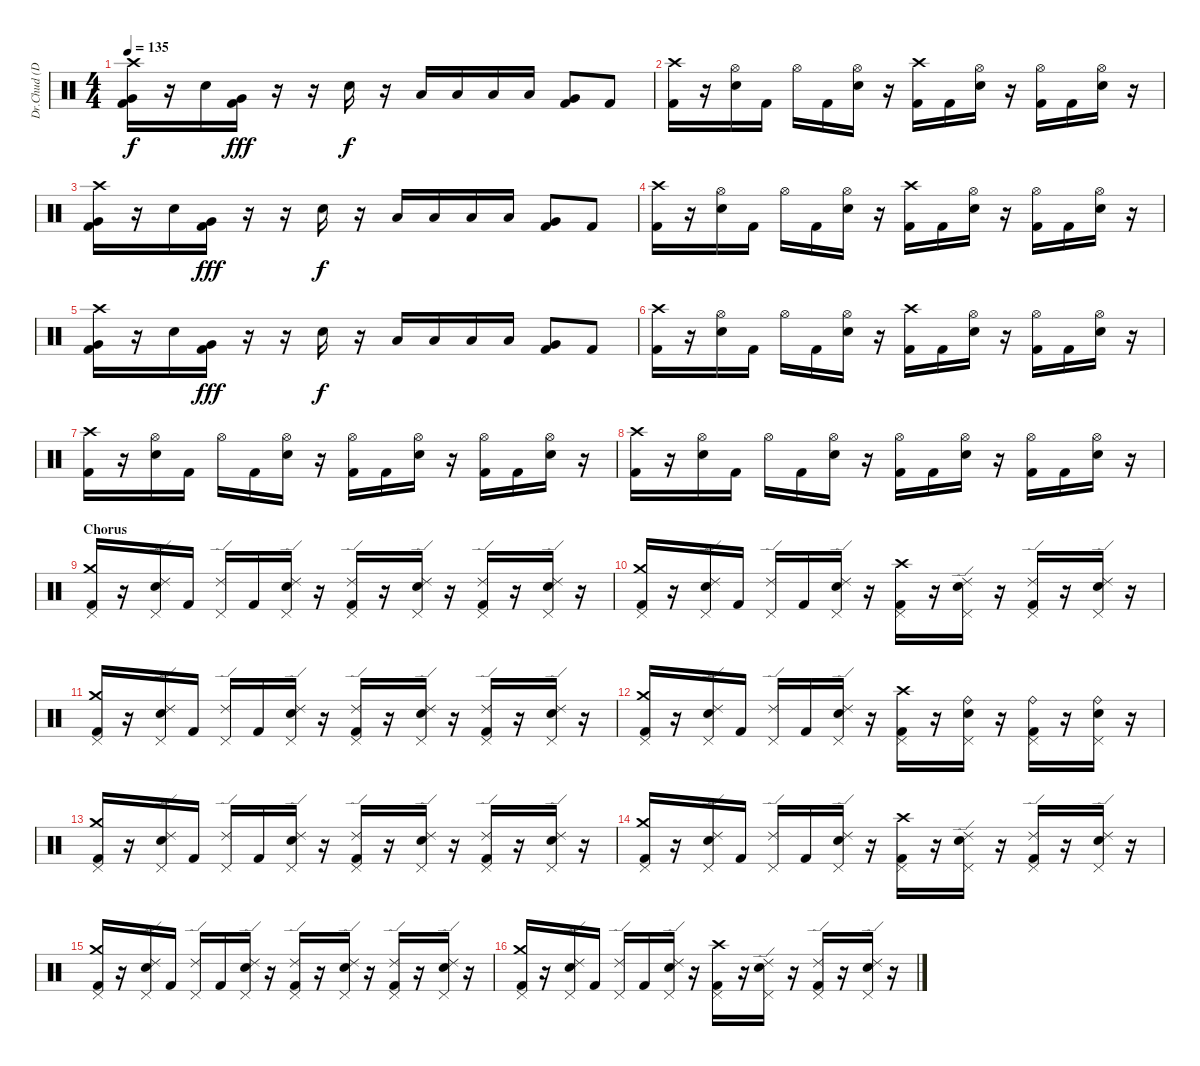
\track ("Dr.Chud (Drums)" "Dr.Chud (D") {instrument percussion}
\staff {score}
\articulation defaults
\ts (4 4)
\tempo 135
\clef neutral
\ks c
("Crash high (hit)" "Very Low Tom (hit)" "Kick (hit) 2").16{dy f} r.16 "Snare (hit) 2".16 ("Very Low Tom (hit)" "Kick (hit) 2").16{dy fff} r.16 r.16 "Snare (hit) 2".16{dy f} r.16 "Low Tom (hit)".16 "Low Tom (hit)".16 "Low Tom (hit)".16 "Low Tom (hit)".16 ("Very Low Tom (hit)" "Kick (hit) 2").8 "Kick (hit) 2".8 |
("Crash high (hit)" "Kick (hit) 2").16 r.16 ("Hi-Hat (open)" "Snare (hit) 2").16 "Kick (hit) 2".16 "Hi-Hat (open)".16 "Kick (hit) 2".16 ("Hi-Hat (open)" "Snare (hit) 2").16 r.16 ("Crash high (hit)" "Kick (hit) 2").16 "Kick (hit) 2".16 ("Hi-Hat (open)" "Snare (hit) 2").16 r.16 ("Hi-Hat (open)" "Kick (hit) 2").16 "Kick (hit) 2".16 ("Hi-Hat (open)" "Snare (hit) 2").16 r.16 |
("Crash high (hit)" "Very Low Tom (hit)" "Kick (hit) 2").16 r.16 "Snare (hit) 2".16 ("Very Low Tom (hit)" "Kick (hit) 2").16{dy fff} r.16 r.16 "Snare (hit) 2".16{dy f} r.16 "Low Tom (hit)".16 "Low Tom (hit)".16 "Low Tom (hit)".16 "Low Tom (hit)".16 ("Very Low Tom (hit)" "Kick (hit) 2").8 "Kick (hit) 2".8 |
("Crash high (hit)" "Kick (hit) 2").16 r.16 ("Hi-Hat (open)" "Snare (hit) 2").16 "Kick (hit) 2".16 "Hi-Hat (open)".16 "Kick (hit) 2".16 ("Hi-Hat (open)" "Snare (hit) 2").16 r.16 ("Crash high (hit)" "Kick (hit) 2").16 "Kick (hit) 2".16 ("Hi-Hat (open)" "Snare (hit) 2").16 r.16 ("Hi-Hat (open)" "Kick (hit) 2").16 "Kick (hit) 2".16 ("Hi-Hat (open)" "Snare (hit) 2").16 r.16 |
("Crash high (hit)" "Very Low Tom (hit)" "Kick (hit) 2").16 r.16 "Snare (hit) 2".16 ("Very Low Tom (hit)" "Kick (hit) 2").16{dy fff} r.16 r.16 "Snare (hit) 2".16{dy f} r.16 "Low Tom (hit)".16 "Low Tom (hit)".16 "Low Tom (hit)".16 "Low Tom (hit)".16 ("Very Low Tom (hit)" "Kick (hit) 2").8 "Kick (hit) 2".8 |
("Crash high (hit)" "Kick (hit) 2").16 r.16 ("Hi-Hat (open)" "Snare (hit) 2").16 "Kick (hit) 2".16 "Hi-Hat (open)".16 "Kick (hit) 2".16 ("Hi-Hat (open)" "Snare (hit) 2").16 r.16 ("Crash high (hit)" "Kick (hit) 2").16 "Kick (hit) 2".16 ("Hi-Hat (open)" "Snare (hit) 2").16 r.16 ("Hi-Hat (open)" "Kick (hit) 2").16 "Kick (hit) 2".16 ("Hi-Hat (open)" "Snare (hit) 2").16 r.16 |
("Crash high (hit)" "Kick (hit) 2").16 r.16 ("Hi-Hat (open)" "Snare (hit) 2").16 "Kick (hit) 2".16 "Hi-Hat (open)".16 "Kick (hit) 2".16 ("Hi-Hat (open)" "Snare (hit) 2").16 r.16 ("Hi-Hat (open)" "Kick (hit) 2").16 "Kick (hit) 2".16 ("Hi-Hat (open)" "Snare (hit) 2").16 r.16 ("Hi-Hat (open)" "Kick (hit) 2").16 "Kick (hit) 2".16 ("Hi-Hat (open)" "Snare (hit) 2").16 r.16 |
("Crash high (hit)" "Kick (hit) 2").16 r.16 ("Hi-Hat (open)" "Snare (hit) 2").16 "Kick (hit) 2".16 "Hi-Hat (open)".16 "Kick (hit) 2".16 ("Hi-Hat (open)" "Snare (hit) 2").16 r.16 ("Hi-Hat (open)" "Kick (hit) 2").16 "Kick (hit) 2".16 ("Hi-Hat (open)" "Snare (hit) 2").16 r.16 ("Hi-Hat (open)" "Kick (hit) 2").16 "Kick (hit) 2".16 ("Hi-Hat (open)" "Snare (hit) 2").16 r.16 |
\section ("" "Chorus")
("Crash medium (hit)" "Pedal Hi-Hat (hit)" "Kick (hit) 2").16 r.16 ("Ride (edge) 2" "Snare (hit) 2" "Pedal Hi-Hat (hit)").16 "Kick (hit) 2".16 ("Ride (edge) 2" "Pedal Hi-Hat (hit)").16 "Kick (hit) 2".16 ("Ride (edge) 2" "Snare (hit) 2" "Pedal Hi-Hat (hit)").16 r.16 ("Ride (edge) 2" "Pedal Hi-Hat (hit)" "Kick (hit) 2").16 r.16 ("Ride (edge) 2" "Snare (hit) 2" "Pedal Hi-Hat (hit)").16 r.16 ("Ride (edge) 2" "Pedal Hi-Hat (hit)" "Kick (hit) 2").16 r.16 ("Ride (edge) 2" "Snare (hit) 2" "Pedal Hi-Hat (hit)").16 r.16 |
("Crash medium (hit)" "Pedal Hi-Hat (hit)" "Kick (hit) 2").16 r.16 ("Ride (edge) 2" "Snare (hit) 2" "Pedal Hi-Hat (hit)").16 "Kick (hit) 2".16 ("Ride (edge) 2" "Pedal Hi-Hat (hit)").16 "Kick (hit) 2".16 ("Ride (edge) 2" "Snare (hit) 2" "Pedal Hi-Hat (hit)").16 r.16 ("Crash high (hit)" "Pedal Hi-Hat (hit)" "Kick (hit) 2").16 r.16 ("Ride (edge) 2" "Snare (hit) 2" "Pedal Hi-Hat (hit)").16 r.16 ("Ride (edge) 2" "Pedal Hi-Hat (hit)" "Kick (hit) 2").16 r.16 ("Ride (edge) 2" "Snare (hit) 2" "Pedal Hi-Hat (hit)").16 r.16 |
("Crash medium (hit)" "Pedal Hi-Hat (hit)" "Kick (hit) 2").16 r.16 ("Ride (edge) 2" "Snare (hit) 2" "Pedal Hi-Hat (hit)").16 "Kick (hit) 2".16 ("Ride (edge) 2" "Pedal Hi-Hat (hit)").16 "Kick (hit) 2".16 ("Ride (edge) 2" "Snare (hit) 2" "Pedal Hi-Hat (hit)").16 r.16 ("Ride (edge) 2" "Pedal Hi-Hat (hit)" "Kick (hit) 2").16 r.16 ("Ride (edge) 2" "Snare (hit) 2" "Pedal Hi-Hat (hit)").16 r.16 ("Ride (edge) 2" "Pedal Hi-Hat (hit)" "Kick (hit) 2").16 r.16 ("Ride (edge) 2" "Snare (hit) 2" "Pedal Hi-Hat (hit)").16 r.16 |
("Crash medium (hit)" "Pedal Hi-Hat (hit)" "Kick (hit) 2").16 r.16 ("Ride (edge) 2" "Snare (hit) 2" "Pedal Hi-Hat (hit)").16 "Kick (hit) 2".16 ("Ride (edge) 2" "Pedal Hi-Hat (hit)").16 "Kick (hit) 2".16 ("Ride (edge) 2" "Snare (hit) 2" "Pedal Hi-Hat (hit)").16 r.16 ("Crash high (hit)" "Pedal Hi-Hat (hit)" "Kick (hit) 2").16 r.16 ("Ride (bell)" "Snare (hit) 2" "Pedal Hi-Hat (hit)").16 r.16 ("Ride (bell)" "Pedal Hi-Hat (hit)" "Kick (hit) 2").16 r.16 ("Ride (bell)" "Snare (hit) 2" "Pedal Hi-Hat (hit)").16 r.16 |
("Crash medium (hit)" "Pedal Hi-Hat (hit)" "Kick (hit) 2").16 r.16 ("Ride (edge) 2" "Snare (hit) 2" "Pedal Hi-Hat (hit)").16 "Kick (hit) 2".16 ("Ride (edge) 2" "Pedal Hi-Hat (hit)").16 "Kick (hit) 2".16 ("Ride (edge) 2" "Snare (hit) 2" "Pedal Hi-Hat (hit)").16 r.16 ("Ride (edge) 2" "Pedal Hi-Hat (hit)" "Kick (hit) 2").16 r.16 ("Ride (edge) 2" "Snare (hit) 2" "Pedal Hi-Hat (hit)").16 r.16 ("Ride (edge) 2" "Pedal Hi-Hat (hit)" "Kick (hit) 2").16 r.16 ("Ride (edge) 2" "Snare (hit) 2" "Pedal Hi-Hat (hit)").16 r.16 |
("Crash medium (hit)" "Pedal Hi-Hat (hit)" "Kick (hit) 2").16 r.16 ("Ride (edge) 2" "Snare (hit) 2" "Pedal Hi-Hat (hit)").16 "Kick (hit) 2".16 ("Ride (edge) 2" "Pedal Hi-Hat (hit)").16 "Kick (hit) 2".16 ("Ride (edge) 2" "Snare (hit) 2" "Pedal Hi-Hat (hit)").16 r.16 ("Crash high (hit)" "Pedal Hi-Hat (hit)" "Kick (hit) 2").16 r.16 ("Ride (edge) 2" "Snare (hit) 2" "Pedal Hi-Hat (hit)").16 r.16 ("Ride (edge) 2" "Pedal Hi-Hat (hit)" "Kick (hit) 2").16 r.16 ("Ride (edge) 2" "Snare (hit) 2" "Pedal Hi-Hat (hit)").16 r.16 |
("Crash medium (hit)" "Pedal Hi-Hat (hit)" "Kick (hit) 2").16 r.16 ("Ride (edge) 2" "Snare (hit) 2" "Pedal Hi-Hat (hit)").16 "Kick (hit) 2".16 ("Ride (edge) 2" "Pedal Hi-Hat (hit)").16 "Kick (hit) 2".16 ("Ride (edge) 2" "Snare (hit) 2" "Pedal Hi-Hat (hit)").16 r.16 ("Ride (edge) 2" "Pedal Hi-Hat (hit)" "Kick (hit) 2").16 r.16 ("Ride (edge) 2" "Snare (hit) 2" "Pedal Hi-Hat (hit)").16 r.16 ("Ride (edge) 2" "Pedal Hi-Hat (hit)" "Kick (hit) 2").16 r.16 ("Ride (edge) 2" "Snare (hit) 2" "Pedal Hi-Hat (hit)").16 r.16 |
("Crash medium (hit)" "Pedal Hi-Hat (hit)" "Kick (hit) 2").16 r.16 ("Ride (edge) 2" "Snare (hit) 2" "Pedal Hi-Hat (hit)").16 "Kick (hit) 2".16 ("Ride (edge) 2" "Pedal Hi-Hat (hit)").16 "Kick (hit) 2".16 ("Ride (edge) 2" "Snare (hit) 2" "Pedal Hi-Hat (hit)").16 r.16 ("Crash high (hit)" "Pedal Hi-Hat (hit)" "Kick (hit) 2").16 r.16 ("Ride (edge) 2" "Snare (hit) 2" "Pedal Hi-Hat (hit)").16 r.16 ("Ride (edge) 2" "Pedal Hi-Hat (hit)" "Kick (hit) 2").16 r.16 ("Ride (edge) 2" "Snare (hit) 2" "Pedal Hi-Hat (hit)").16 r.16
